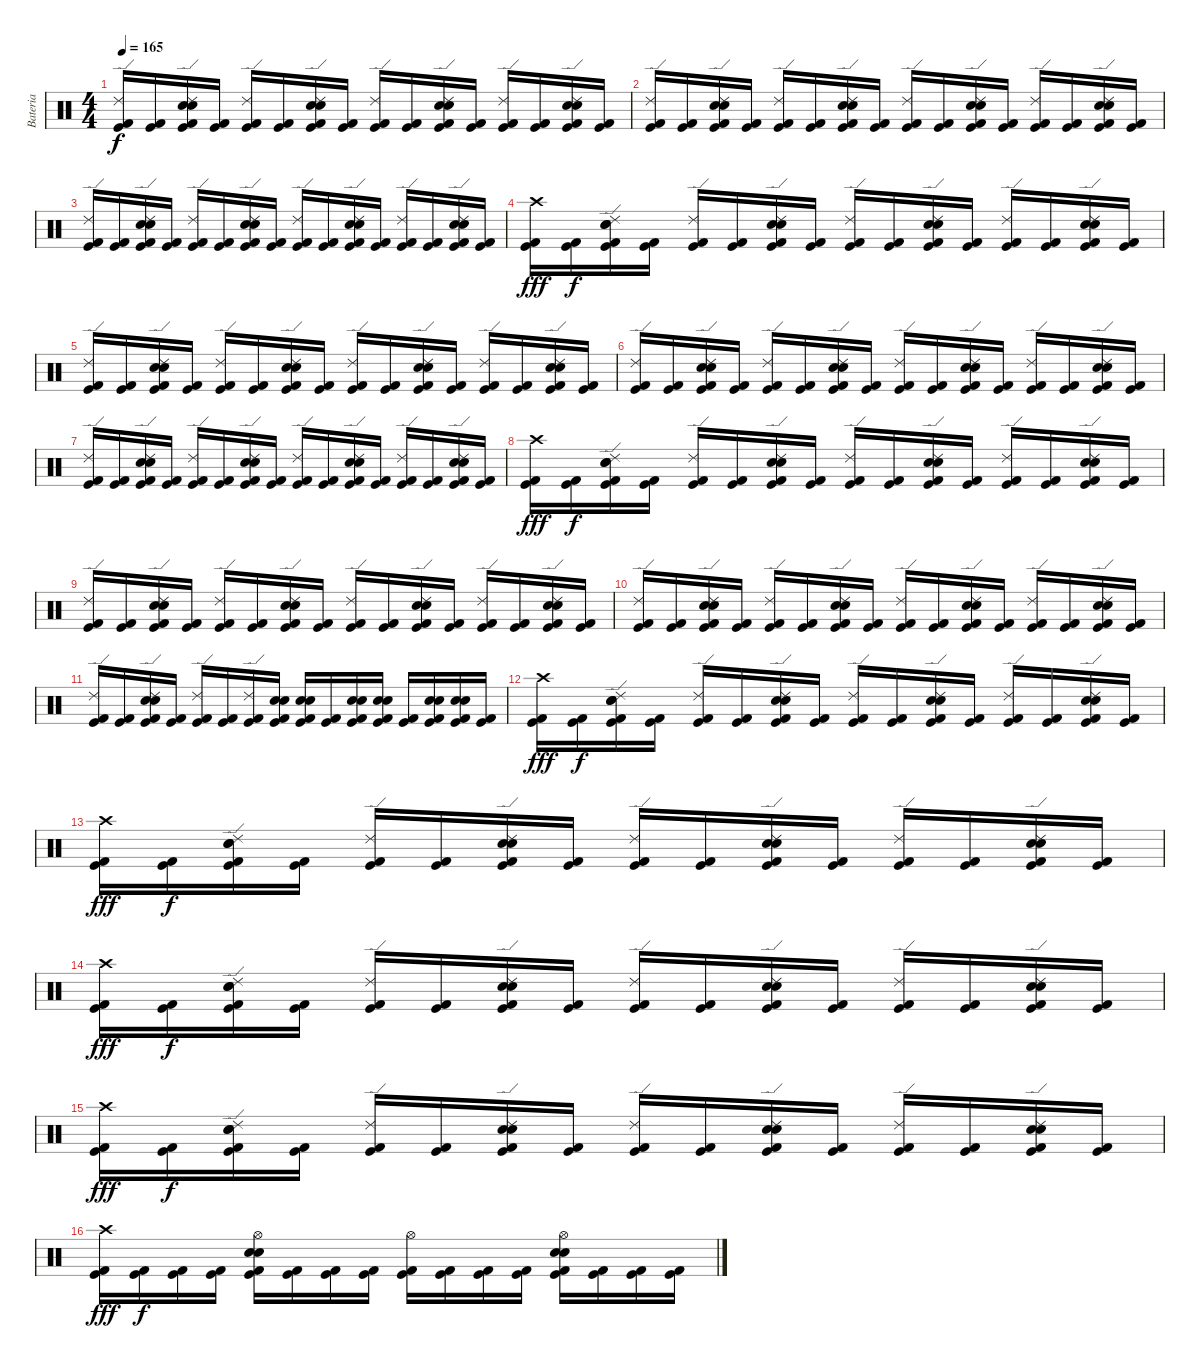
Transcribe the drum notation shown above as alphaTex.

\track ("Bateria" "Bateria") {instrument percussion}
\staff {score}
\articulation defaults
\ts (4 4)
\tempo 165
\clef neutral
\ks c
("Ride (edge) 2" "Kick (hit) 2" "Kick (hit)").16{dy f} ("Kick (hit) 2" "Kick (hit)").16 ("Ride (edge) 2" "Electric Snare (hit)" "Snare (hit) 2" "Kick (hit) 2" "Kick (hit)").16 ("Kick (hit) 2" "Kick (hit)").16 ("Ride (edge) 2" "Kick (hit) 2" "Kick (hit)").16 ("Kick (hit) 2" "Kick (hit)").16 ("Ride (edge) 2" "Electric Snare (hit)" "Snare (hit) 2" "Kick (hit) 2" "Kick (hit)").16 ("Kick (hit) 2" "Kick (hit)").16 ("Ride (edge) 2" "Kick (hit) 2" "Kick (hit)").16 ("Kick (hit) 2" "Kick (hit)").16 ("Ride (edge) 2" "Electric Snare (hit)" "Snare (hit) 2" "Kick (hit) 2" "Kick (hit)").16 ("Kick (hit) 2" "Kick (hit)").16 ("Ride (edge) 2" "Kick (hit) 2" "Kick (hit)").16 ("Kick (hit) 2" "Kick (hit)").16 ("Ride (edge) 2" "Electric Snare (hit)" "Snare (hit) 2" "Kick (hit) 2" "Kick (hit)").16 ("Kick (hit) 2" "Kick (hit)").16 |
("Ride (edge) 2" "Kick (hit) 2" "Kick (hit)").16 ("Kick (hit) 2" "Kick (hit)").16 ("Ride (edge) 2" "Electric Snare (hit)" "Snare (hit) 2" "Kick (hit) 2" "Kick (hit)").16 ("Kick (hit) 2" "Kick (hit)").16 ("Ride (edge) 2" "Kick (hit) 2" "Kick (hit)").16 ("Kick (hit) 2" "Kick (hit)").16 ("Ride (edge) 2" "Electric Snare (hit)" "Snare (hit) 2" "Kick (hit) 2" "Kick (hit)").16 ("Kick (hit) 2" "Kick (hit)").16 ("Ride (edge) 2" "Kick (hit) 2" "Kick (hit)").16 ("Kick (hit) 2" "Kick (hit)").16 ("Ride (edge) 2" "Electric Snare (hit)" "Snare (hit) 2" "Kick (hit) 2" "Kick (hit)").16 ("Kick (hit) 2" "Kick (hit)").16 ("Ride (edge) 2" "Kick (hit) 2" "Kick (hit)").16 ("Kick (hit) 2" "Kick (hit)").16 ("Ride (edge) 2" "Electric Snare (hit)" "Snare (hit) 2" "Kick (hit) 2" "Kick (hit)").16 ("Kick (hit) 2" "Kick (hit)").16 |
("Ride (edge) 2" "Kick (hit) 2" "Kick (hit)").16 ("Kick (hit) 2" "Kick (hit)").16 ("Ride (edge) 2" "Electric Snare (hit)" "Snare (hit) 2" "Kick (hit) 2" "Kick (hit)").16 ("Kick (hit) 2" "Kick (hit)").16 ("Ride (edge) 2" "Kick (hit) 2" "Kick (hit)").16 ("Kick (hit) 2" "Kick (hit)").16 ("Ride (edge) 2" "Electric Snare (hit)" "Snare (hit) 2" "Kick (hit) 2" "Kick (hit)").16 ("Kick (hit) 2" "Kick (hit)").16 ("Ride (edge) 2" "Kick (hit) 2" "Kick (hit)").16 ("Kick (hit) 2" "Kick (hit)").16 ("Ride (edge) 2" "Electric Snare (hit)" "Snare (hit) 2" "Kick (hit) 2" "Kick (hit)").16 ("Kick (hit) 2" "Kick (hit)").16 ("Ride (edge) 2" "Kick (hit) 2" "Kick (hit)").16 ("Kick (hit) 2" "Kick (hit)").16 ("Ride (edge) 2" "Electric Snare (hit)" "Snare (hit) 2" "Kick (hit) 2" "Kick (hit)").16 ("Kick (hit) 2" "Kick (hit)").16 |
("Crash high (hit)" "Kick (hit) 2" "Kick (hit)").16{dy fff} ("Kick (hit) 2" "Kick (hit)").16{dy f} ("Ride (edge) 2" "Electric Snare (hit)" "Snare (hit) 2" "Kick (hit) 2" "Kick (hit)").16 ("Kick (hit) 2" "Kick (hit)").16 ("Ride (edge) 2" "Kick (hit) 2" "Kick (hit)").16 ("Kick (hit) 2" "Kick (hit)").16 ("Ride (edge) 2" "Electric Snare (hit)" "Snare (hit) 2" "Kick (hit) 2" "Kick (hit)").16 ("Kick (hit) 2" "Kick (hit)").16 ("Ride (edge) 2" "Kick (hit) 2" "Kick (hit)").16 ("Kick (hit) 2" "Kick (hit)").16 ("Ride (edge) 2" "Electric Snare (hit)" "Snare (hit) 2" "Kick (hit) 2" "Kick (hit)").16 ("Kick (hit) 2" "Kick (hit)").16 ("Ride (edge) 2" "Kick (hit) 2" "Kick (hit)").16 ("Kick (hit) 2" "Kick (hit)").16 ("Ride (edge) 2" "Electric Snare (hit)" "Snare (hit) 2" "Kick (hit) 2" "Kick (hit)").16 ("Kick (hit) 2" "Kick (hit)").16 |
("Ride (edge) 2" "Kick (hit) 2" "Kick (hit)").16 ("Kick (hit) 2" "Kick (hit)").16 ("Ride (edge) 2" "Electric Snare (hit)" "Snare (hit) 2" "Kick (hit) 2" "Kick (hit)").16 ("Kick (hit) 2" "Kick (hit)").16 ("Ride (edge) 2" "Kick (hit) 2" "Kick (hit)").16 ("Kick (hit) 2" "Kick (hit)").16 ("Ride (edge) 2" "Electric Snare (hit)" "Snare (hit) 2" "Kick (hit) 2" "Kick (hit)").16 ("Kick (hit) 2" "Kick (hit)").16 ("Ride (edge) 2" "Kick (hit) 2" "Kick (hit)").16 ("Kick (hit) 2" "Kick (hit)").16 ("Ride (edge) 2" "Electric Snare (hit)" "Snare (hit) 2" "Kick (hit) 2" "Kick (hit)").16 ("Kick (hit) 2" "Kick (hit)").16 ("Ride (edge) 2" "Kick (hit) 2" "Kick (hit)").16 ("Kick (hit) 2" "Kick (hit)").16 ("Ride (edge) 2" "Electric Snare (hit)" "Snare (hit) 2" "Kick (hit) 2" "Kick (hit)").16 ("Kick (hit) 2" "Kick (hit)").16 |
("Ride (edge) 2" "Kick (hit) 2" "Kick (hit)").16 ("Kick (hit) 2" "Kick (hit)").16 ("Ride (edge) 2" "Electric Snare (hit)" "Snare (hit) 2" "Kick (hit) 2" "Kick (hit)").16 ("Kick (hit) 2" "Kick (hit)").16 ("Ride (edge) 2" "Kick (hit) 2" "Kick (hit)").16 ("Kick (hit) 2" "Kick (hit)").16 ("Ride (edge) 2" "Electric Snare (hit)" "Snare (hit) 2" "Kick (hit) 2" "Kick (hit)").16 ("Kick (hit) 2" "Kick (hit)").16 ("Ride (edge) 2" "Kick (hit) 2" "Kick (hit)").16 ("Kick (hit) 2" "Kick (hit)").16 ("Ride (edge) 2" "Electric Snare (hit)" "Snare (hit) 2" "Kick (hit) 2" "Kick (hit)").16 ("Kick (hit) 2" "Kick (hit)").16 ("Ride (edge) 2" "Kick (hit) 2" "Kick (hit)").16 ("Kick (hit) 2" "Kick (hit)").16 ("Ride (edge) 2" "Electric Snare (hit)" "Snare (hit) 2" "Kick (hit) 2" "Kick (hit)").16 ("Kick (hit) 2" "Kick (hit)").16 |
("Ride (edge) 2" "Kick (hit) 2" "Kick (hit)").16 ("Kick (hit) 2" "Kick (hit)").16 ("Ride (edge) 2" "Electric Snare (hit)" "Snare (hit) 2" "Kick (hit) 2" "Kick (hit)").16 ("Kick (hit) 2" "Kick (hit)").16 ("Ride (edge) 2" "Kick (hit) 2" "Kick (hit)").16 ("Kick (hit) 2" "Kick (hit)").16 ("Ride (edge) 2" "Electric Snare (hit)" "Snare (hit) 2" "Kick (hit) 2" "Kick (hit)").16 ("Kick (hit) 2" "Kick (hit)").16 ("Ride (edge) 2" "Kick (hit) 2" "Kick (hit)").16 ("Kick (hit) 2" "Kick (hit)").16 ("Ride (edge) 2" "Electric Snare (hit)" "Snare (hit) 2" "Kick (hit) 2" "Kick (hit)").16 ("Kick (hit) 2" "Kick (hit)").16 ("Ride (edge) 2" "Kick (hit) 2" "Kick (hit)").16 ("Kick (hit) 2" "Kick (hit)").16 ("Ride (edge) 2" "Electric Snare (hit)" "Snare (hit) 2" "Kick (hit) 2" "Kick (hit)").16 ("Kick (hit) 2" "Kick (hit)").16 |
("Crash high (hit)" "Kick (hit) 2" "Kick (hit)").16{dy fff} ("Kick (hit) 2" "Kick (hit)").16{dy f} ("Ride (edge) 2" "Electric Snare (hit)" "Snare (hit) 2" "Kick (hit) 2" "Kick (hit)").16 ("Kick (hit) 2" "Kick (hit)").16 ("Ride (edge) 2" "Kick (hit) 2" "Kick (hit)").16 ("Kick (hit) 2" "Kick (hit)").16 ("Ride (edge) 2" "Electric Snare (hit)" "Snare (hit) 2" "Kick (hit) 2" "Kick (hit)").16 ("Kick (hit) 2" "Kick (hit)").16 ("Ride (edge) 2" "Kick (hit) 2" "Kick (hit)").16 ("Kick (hit) 2" "Kick (hit)").16 ("Ride (edge) 2" "Electric Snare (hit)" "Snare (hit) 2" "Kick (hit) 2" "Kick (hit)").16 ("Kick (hit) 2" "Kick (hit)").16 ("Ride (edge) 2" "Kick (hit) 2" "Kick (hit)").16 ("Kick (hit) 2" "Kick (hit)").16 ("Ride (edge) 2" "Electric Snare (hit)" "Snare (hit) 2" "Kick (hit) 2" "Kick (hit)").16 ("Kick (hit) 2" "Kick (hit)").16 |
("Ride (edge) 2" "Kick (hit) 2" "Kick (hit)").16 ("Kick (hit) 2" "Kick (hit)").16 ("Ride (edge) 2" "Electric Snare (hit)" "Snare (hit) 2" "Kick (hit) 2" "Kick (hit)").16 ("Kick (hit) 2" "Kick (hit)").16 ("Ride (edge) 2" "Kick (hit) 2" "Kick (hit)").16 ("Kick (hit) 2" "Kick (hit)").16 ("Ride (edge) 2" "Electric Snare (hit)" "Snare (hit) 2" "Kick (hit) 2" "Kick (hit)").16 ("Kick (hit) 2" "Kick (hit)").16 ("Ride (edge) 2" "Kick (hit) 2" "Kick (hit)").16 ("Kick (hit) 2" "Kick (hit)").16 ("Ride (edge) 2" "Electric Snare (hit)" "Snare (hit) 2" "Kick (hit) 2" "Kick (hit)").16 ("Kick (hit) 2" "Kick (hit)").16 ("Ride (edge) 2" "Kick (hit) 2" "Kick (hit)").16 ("Kick (hit) 2" "Kick (hit)").16 ("Ride (edge) 2" "Electric Snare (hit)" "Snare (hit) 2" "Kick (hit) 2" "Kick (hit)").16 ("Kick (hit) 2" "Kick (hit)").16 |
("Ride (edge) 2" "Kick (hit) 2" "Kick (hit)").16 ("Kick (hit) 2" "Kick (hit)").16 ("Ride (edge) 2" "Electric Snare (hit)" "Snare (hit) 2" "Kick (hit) 2" "Kick (hit)").16 ("Kick (hit) 2" "Kick (hit)").16 ("Ride (edge) 2" "Kick (hit) 2" "Kick (hit)").16 ("Kick (hit) 2" "Kick (hit)").16 ("Ride (edge) 2" "Electric Snare (hit)" "Snare (hit) 2" "Kick (hit) 2" "Kick (hit)").16 ("Kick (hit) 2" "Kick (hit)").16 ("Ride (edge) 2" "Kick (hit) 2" "Kick (hit)").16 ("Kick (hit) 2" "Kick (hit)").16 ("Ride (edge) 2" "Electric Snare (hit)" "Snare (hit) 2" "Kick (hit) 2" "Kick (hit)").16 ("Kick (hit) 2" "Kick (hit)").16 ("Ride (edge) 2" "Kick (hit) 2" "Kick (hit)").16 ("Kick (hit) 2" "Kick (hit)").16 ("Ride (edge) 2" "Electric Snare (hit)" "Snare (hit) 2" "Kick (hit) 2" "Kick (hit)").16 ("Kick (hit) 2" "Kick (hit)").16 |
("Ride (edge) 2" "Kick (hit) 2" "Kick (hit)").16 ("Kick (hit) 2" "Kick (hit)").16 ("Ride (edge) 2" "Electric Snare (hit)" "Snare (hit) 2" "Kick (hit) 2" "Kick (hit)").16 ("Kick (hit) 2" "Kick (hit)").16 ("Ride (edge) 2" "Kick (hit) 2" "Kick (hit)").16 ("Kick (hit) 2" "Kick (hit)").16 ("Ride (edge) 2" "Kick (hit) 2" "Kick (hit)").16 ("Electric Snare (hit)" "Snare (hit) 2" "Kick (hit) 2" "Kick (hit)").16 ("Electric Snare (hit)" "Snare (hit) 2" "Kick (hit) 2" "Kick (hit)").16 ("Kick (hit) 2" "Kick (hit)").16 ("Electric Snare (hit)" "Snare (hit) 2" "Kick (hit) 2" "Kick (hit)").16 ("Electric Snare (hit)" "Snare (hit) 2" "Kick (hit) 2" "Kick (hit)").16 ("Kick (hit) 2" "Kick (hit)").16 ("Electric Snare (hit)" "Snare (hit) 2" "Kick (hit) 2" "Kick (hit)").16 ("Electric Snare (hit)" "Snare (hit) 2" "Kick (hit) 2" "Kick (hit)").16 ("Kick (hit) 2" "Kick (hit)").16 |
("Crash high (hit)" "Kick (hit) 2" "Kick (hit)").16{dy fff} ("Kick (hit) 2" "Kick (hit)").16{dy f} ("Ride (edge) 2" "Electric Snare (hit)" "Snare (hit) 2" "Kick (hit) 2" "Kick (hit)").16 ("Kick (hit) 2" "Kick (hit)").16 ("Ride (edge) 2" "Kick (hit) 2" "Kick (hit)").16 ("Kick (hit) 2" "Kick (hit)").16 ("Ride (edge) 2" "Electric Snare (hit)" "Snare (hit) 2" "Kick (hit) 2" "Kick (hit)").16 ("Kick (hit) 2" "Kick (hit)").16 ("Ride (edge) 2" "Kick (hit) 2" "Kick (hit)").16 ("Kick (hit) 2" "Kick (hit)").16 ("Ride (edge) 2" "Electric Snare (hit)" "Snare (hit) 2" "Kick (hit) 2" "Kick (hit)").16 ("Kick (hit) 2" "Kick (hit)").16 ("Ride (edge) 2" "Kick (hit) 2" "Kick (hit)").16 ("Kick (hit) 2" "Kick (hit)").16 ("Ride (edge) 2" "Electric Snare (hit)" "Snare (hit) 2" "Kick (hit) 2" "Kick (hit)").16 ("Kick (hit) 2" "Kick (hit)").16 |
("Crash high (hit)" "Kick (hit) 2" "Kick (hit)").16{dy fff} ("Kick (hit) 2" "Kick (hit)").16{dy f} ("Ride (edge) 2" "Electric Snare (hit)" "Snare (hit) 2" "Kick (hit) 2" "Kick (hit)").16 ("Kick (hit) 2" "Kick (hit)").16 ("Ride (edge) 2" "Kick (hit) 2" "Kick (hit)").16 ("Kick (hit) 2" "Kick (hit)").16 ("Ride (edge) 2" "Electric Snare (hit)" "Snare (hit) 2" "Kick (hit) 2" "Kick (hit)").16 ("Kick (hit) 2" "Kick (hit)").16 ("Ride (edge) 2" "Kick (hit) 2" "Kick (hit)").16 ("Kick (hit) 2" "Kick (hit)").16 ("Ride (edge) 2" "Electric Snare (hit)" "Snare (hit) 2" "Kick (hit) 2" "Kick (hit)").16 ("Kick (hit) 2" "Kick (hit)").16 ("Ride (edge) 2" "Kick (hit) 2" "Kick (hit)").16 ("Kick (hit) 2" "Kick (hit)").16 ("Ride (edge) 2" "Electric Snare (hit)" "Snare (hit) 2" "Kick (hit) 2" "Kick (hit)").16 ("Kick (hit) 2" "Kick (hit)").16 |
("Crash high (hit)" "Kick (hit) 2" "Kick (hit)").16{dy fff} ("Kick (hit) 2" "Kick (hit)").16{dy f} ("Ride (edge) 2" "Electric Snare (hit)" "Snare (hit) 2" "Kick (hit) 2" "Kick (hit)").16 ("Kick (hit) 2" "Kick (hit)").16 ("Ride (edge) 2" "Kick (hit) 2" "Kick (hit)").16 ("Kick (hit) 2" "Kick (hit)").16 ("Ride (edge) 2" "Electric Snare (hit)" "Snare (hit) 2" "Kick (hit) 2" "Kick (hit)").16 ("Kick (hit) 2" "Kick (hit)").16 ("Ride (edge) 2" "Kick (hit) 2" "Kick (hit)").16 ("Kick (hit) 2" "Kick (hit)").16 ("Ride (edge) 2" "Electric Snare (hit)" "Snare (hit) 2" "Kick (hit) 2" "Kick (hit)").16 ("Kick (hit) 2" "Kick (hit)").16 ("Ride (edge) 2" "Kick (hit) 2" "Kick (hit)").16 ("Kick (hit) 2" "Kick (hit)").16 ("Ride (edge) 2" "Electric Snare (hit)" "Snare (hit) 2" "Kick (hit) 2" "Kick (hit)").16 ("Kick (hit) 2" "Kick (hit)").16 |
("Crash high (hit)" "Kick (hit) 2" "Kick (hit)").16{dy fff} ("Kick (hit) 2" "Kick (hit)").16{dy f} ("Ride (edge) 2" "Electric Snare (hit)" "Snare (hit) 2" "Kick (hit) 2" "Kick (hit)").16 ("Kick (hit) 2" "Kick (hit)").16 ("Ride (edge) 2" "Kick (hit) 2" "Kick (hit)").16 ("Kick (hit) 2" "Kick (hit)").16 ("Ride (edge) 2" "Electric Snare (hit)" "Snare (hit) 2" "Kick (hit) 2" "Kick (hit)").16 ("Kick (hit) 2" "Kick (hit)").16 ("Ride (edge) 2" "Kick (hit) 2" "Kick (hit)").16 ("Kick (hit) 2" "Kick (hit)").16 ("Ride (edge) 2" "Electric Snare (hit)" "Snare (hit) 2" "Kick (hit) 2" "Kick (hit)").16 ("Kick (hit) 2" "Kick (hit)").16 ("Ride (edge) 2" "Kick (hit) 2" "Kick (hit)").16 ("Kick (hit) 2" "Kick (hit)").16 ("Ride (edge) 2" "Electric Snare (hit)" "Snare (hit) 2" "Kick (hit) 2" "Kick (hit)").16 ("Kick (hit) 2" "Kick (hit)").16 |
("Crash high (hit)" "Kick (hit) 2" "Kick (hit)").16{dy fff} ("Kick (hit) 2" "Kick (hit)").16{dy f} ("Kick (hit) 2" "Kick (hit)").16 ("Kick (hit) 2" "Kick (hit)").16 ("Hi-Hat (open)" "Electric Snare (hit)" "Snare (hit) 2" "Kick (hit) 2" "Kick (hit)").16 ("Kick (hit) 2" "Kick (hit)").16 ("Kick (hit) 2" "Kick (hit)").16 ("Kick (hit) 2" "Kick (hit)").16 ("Hi-Hat (open)" "Kick (hit) 2" "Kick (hit)").16 ("Kick (hit) 2" "Kick (hit)").16 ("Kick (hit) 2" "Kick (hit)").16 ("Kick (hit) 2" "Kick (hit)").16 ("Hi-Hat (open)" "Electric Snare (hit)" "Snare (hit) 2" "Kick (hit) 2" "Kick (hit)").16 ("Kick (hit) 2" "Kick (hit)").16 ("Kick (hit) 2" "Kick (hit)").16 ("Kick (hit) 2" "Kick (hit)").16
